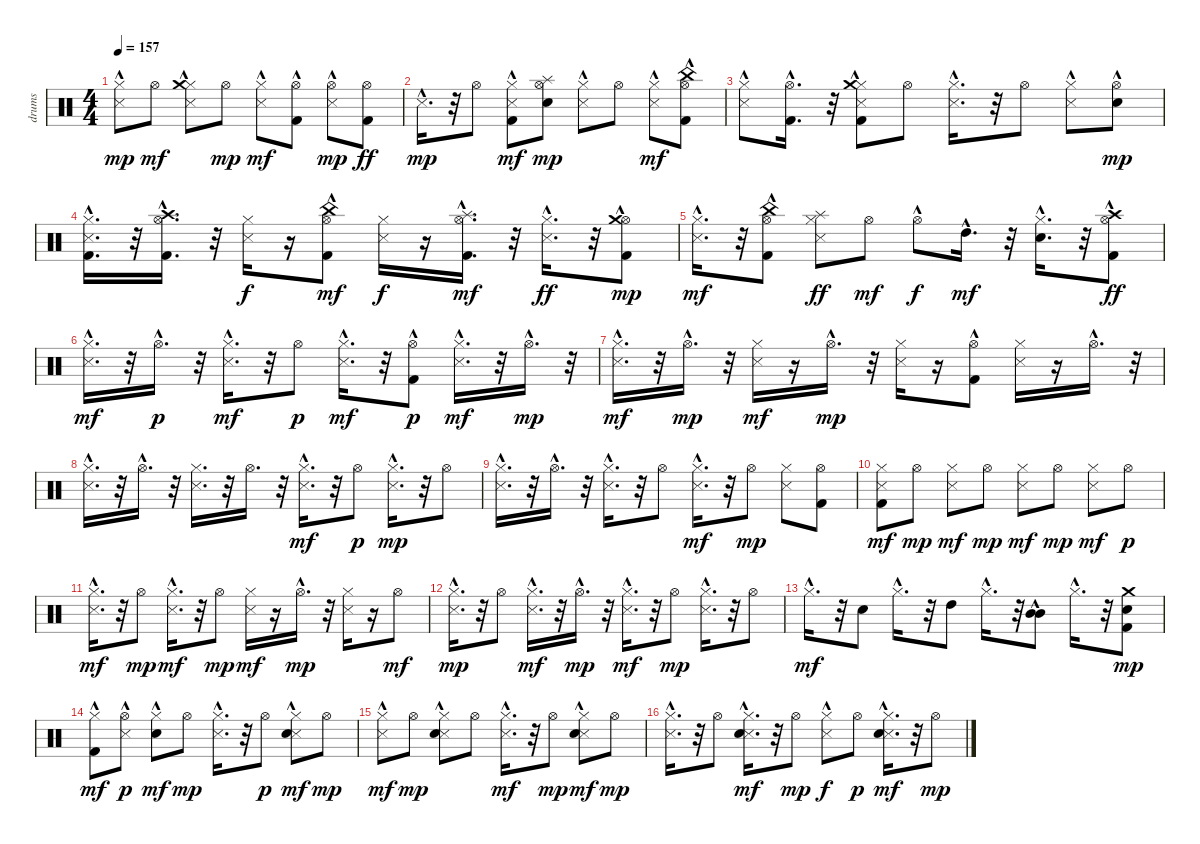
\track ("drums   " "drums   ") {instrument percussion}
\staff {score}
\articulation defaults
\ts (4 4)
\tempo 157
\clef neutral
\ks c
("Snare (side stick) 3"{hac} "Hi-Hat (closed)").8{dy mp} "Hi-Hat (open)".8{dy mf} ("Snare (side stick) 3"{hac} "Hi-Hat (closed)" "Crash medium (hit)").8 "Hi-Hat (open)".8{dy mp} ("Snare (side stick) 3"{hac} "Hi-Hat (closed)").8{dy mf} ("Kick (hit) 2"{hac} "Hi-Hat (open)").8 ("Snare (side stick) 3"{hac} "Hi-Hat (open)").8{dy mp} ("Kick (hit) 2" "Hi-Hat (open)").8{dy ff} |
"Snare (side stick) 3"{hac}.16{d dy mp} r.32 "Hi-Hat (open)".8 ("Kick (hit) 2" "Snare (side stick) 3"{hac} "Hi-Hat (closed)").8{dy mf} ("Electric Snare (hit)" "Hi-Hat (open)" "Splash (hit)").8{dy mp} ("Snare (side stick) 3"{hac} "Hi-Hat (closed)").8 "Hi-Hat (open)".8 ("Snare (side stick) 3"{hac} "Hi-Hat (closed)").8{dy mf} ("Kick (hit) 2" "Hi-Hat (open)" "China (hit)"{hac}).8 |
("Snare (side stick) 3"{hac} "Hi-Hat (closed)").8 ("Kick (hit) 2"{hac} "Hi-Hat (open)"{hac}).16{d} r.32 ("Kick (hit) 2"{hac} "Snare (side stick) 3"{hac} "Hi-Hat (closed)" "Crash medium (hit)").8 "Hi-Hat (open)".8 ("Snare (side stick) 3"{hac} "Hi-Hat (closed)"{hac}).16{d} r.32 "Hi-Hat (open)".8 ("Snare (side stick) 3"{hac} "Hi-Hat (closed)").8 ("Electric Snare (hit)"{hac} "Hi-Hat (open)").8{dy mp} |
("Kick (hit) 2"{hac} "Snare (side stick) 3"{hac} "Hi-Hat (closed)"{hac}).16{d} r.32 ("Kick (hit) 2"{hac} "Hi-Hat (open)"{hac} "Crash high (hit)"{hac}).16{d} r.32 ("Snare (side stick) 3" "Hi-Hat (closed)").16{dy f} r.16 ("Kick (hit) 2" "Hi-Hat (open)"{hac} "China (hit)"{hac}).8{dy mf} ("Snare (side stick) 3" "Hi-Hat (closed)").16{dy f} r.16 ("Kick (hit) 2"{hac} "Hi-Hat (open)"{hac} "Splash (hit)"{hac}).16{d dy mf} r.32 ("Snare (side stick) 3" "Hi-Hat (closed)"{hac}).16{d dy ff} r.32 ("Kick (hit) 2"{hac} "Hi-Hat (open)" "Crash medium (hit)"{hac}).8{dy mp} |
("Snare (side stick) 3"{hac} "Hi-Hat (closed)"{hac}).16{d dy mf} r.32 ("Kick (hit) 2"{hac} "Hi-Hat (open)" "China (hit)").8 ("Snare (side stick) 3" "Hi-Hat (closed)" "Splash (hit)").8{dy ff} "Hi-Hat (open)".8{dy mf} "Hi-Hat (open)"{hac}.8{dy f} "High Tom (hit)"{hac}.16{d dy mf} r.32 ("Snare (hit) 2"{hac} "Hi-Hat (closed)"{hac}).16{d} r.32 ("Kick (hit) 2" "Hi-Hat (open)"{hac} "Crash high (hit)").8{dy ff} |
("Snare (side stick) 3"{hac} "Hi-Hat (closed)"{hac}).16{d dy mf} r.32 "Hi-Hat (open)"{hac}.16{d dy p} r.32 ("Snare (side stick) 3"{hac} "Hi-Hat (closed)"{hac}).16{d dy mf} r.32 "Hi-Hat (open)".8{dy p} ("Snare (side stick) 3"{hac} "Hi-Hat (closed)"{hac}).16{d dy mf} r.32 ("Kick (hit) 2"{hac} "Hi-Hat (open)").8{dy p} ("Snare (side stick) 3"{hac} "Hi-Hat (closed)"{hac}).16{d dy mf} r.32 "Hi-Hat (open)"{hac}.16{d dy mp} r.32 |
("Snare (side stick) 3"{hac} "Hi-Hat (closed)"{hac}).16{d dy mf} r.32 "Hi-Hat (open)"{hac}.16{d dy mp} r.32 ("Snare (side stick) 3" "Hi-Hat (closed)").16{dy mf} r.16 "Hi-Hat (open)"{hac}.16{d dy mp} r.32 ("Snare (side stick) 3" "Hi-Hat (closed)").16 r.16 ("Kick (hit) 2" "Hi-Hat (open)"{hac}).8 ("Snare (side stick) 3" "Hi-Hat (closed)").16 r.16 "Hi-Hat (open)"{hac}.16{d} r.32 |
("Snare (side stick) 3"{hac} "Hi-Hat (closed)"{hac}).16{d} r.32 "Hi-Hat (open)"{hac}.16{d} r.32 ("Snare (side stick) 3" "Hi-Hat (closed)").16{d} r.32 "Hi-Hat (open)".16{d} r.32 ("Snare (side stick) 3"{hac} "Hi-Hat (closed)"{hac}).16{d dy mf} r.32 "Hi-Hat (open)".8{dy p} ("Snare (side stick) 3"{hac} "Hi-Hat (closed)"{hac}).16{d dy mp} r.32 "Hi-Hat (open)".8 |
("Snare (side stick) 3"{hac} "Hi-Hat (closed)"{hac}).16{d} r.32 "Hi-Hat (open)"{hac}.16{d} r.32 ("Snare (side stick) 3"{hac} "Hi-Hat (closed)"{hac}).16{d} r.32 "Hi-Hat (open)".8 ("Snare (side stick) 3"{hac} "Hi-Hat (closed)"{hac}).16{d dy mf} r.32 "Hi-Hat (open)".8{dy mp} ("Snare (side stick) 3" "Hi-Hat (closed)").8 ("Kick (hit) 2" "Hi-Hat (open)").8 |
("Kick (hit) 2" "Snare (side stick) 3" "Hi-Hat (closed)").8{dy mf} "Hi-Hat (open)".8{dy mp} ("Snare (side stick) 3" "Hi-Hat (closed)").8{dy mf} "Hi-Hat (open)".8{dy mp} ("Snare (side stick) 3" "Hi-Hat (closed)").8{dy mf} "Hi-Hat (open)".8{dy mp} ("Snare (side stick) 3" "Hi-Hat (closed)").8{dy mf} "Hi-Hat (open)".8{dy p} |
("Snare (side stick) 3"{hac} "Hi-Hat (closed)"{hac}).16{d dy mf} r.32 "Hi-Hat (open)".8{dy mp} ("Snare (side stick) 3"{hac} "Hi-Hat (closed)"{hac}).16{d dy mf} r.32 "Hi-Hat (open)".8{dy mp} ("Snare (side stick) 3" "Hi-Hat (closed)").16{dy mf} r.16 "Hi-Hat (open)"{hac}.16{d dy mp} r.32 ("Snare (side stick) 3" "Hi-Hat (closed)").16 r.16 "Hi-Hat (open)".8{dy mf} |
("Snare (side stick) 3"{hac} "Hi-Hat (closed)"{hac}).16{d dy mp} r.32 "Hi-Hat (open)".8 ("Snare (side stick) 3"{hac} "Hi-Hat (closed)"{hac}).16{d dy mf} r.32 "Hi-Hat (open)"{hac}.16{d dy mp} r.32 ("Snare (side stick) 3"{hac} "Hi-Hat (closed)"{hac}).16{d dy mf} r.32 "Hi-Hat (open)".8{dy mp} ("Snare (side stick) 3"{hac} "Hi-Hat (closed)"{hac}).16{d} r.32 "Hi-Hat (open)".8 |
"Hi-Hat (closed)"{hac}.16{d dy mf} r.32 "Snare (hit) 2".8 "Hi-Hat (closed)"{hac}.16{d} r.32 "High Tom (hit)".8 "Hi-Hat (closed)"{hac}.16{d} r.32 ("Mid Tom (hit)" "Mid Tom (hit)"{hac}).8 "Hi-Hat (closed)"{hac}.16{d} r.32 ("Kick (hit) 2" "Electric Snare (hit)" "Crash medium (hit)").8{dy mp} |
("Kick (hit) 2" "Hi-Hat (closed)"{hac}).8{dy mf} ("Snare (side stick) 3"{hac} "Hi-Hat (open)").8{dy p} ("Hand Clap (hit)"{hac} "Hi-Hat (closed)").8{dy mf} "Hi-Hat (open)".8{dy mp} ("Snare (side stick) 3" "Hi-Hat (closed)"{hac}).16{d} r.32 "Hi-Hat (open)".8{dy p} ("Snare (side stick) 3"{hac} "Hand Clap (hit)"{hac} "Hi-Hat (closed)").8{dy mf} "Hi-Hat (open)".8{dy mp} |
("Snare (side stick) 3"{hac} "Hi-Hat (closed)").8{dy mf} "Hi-Hat (open)".8{dy mp} ("Snare (side stick) 3" "Hand Clap (hit)" "Hi-Hat (closed)"{hac}).8 "Hi-Hat (open)".8 ("Snare (side stick) 3" "Hi-Hat (closed)"{hac}).16{d dy mf} r.32 "Hi-Hat (open)".8{dy mp} ("Snare (side stick) 3" "Hand Clap (hit)"{hac} "Hi-Hat (closed)").8{dy mf} "Hi-Hat (open)".8{dy mp} |
("Snare (side stick) 3" "Hi-Hat (closed)"{hac}).16{d} r.32 "Hi-Hat (open)".8 ("Snare (side stick) 3" "Hand Clap (hit)"{hac} "Hi-Hat (closed)"{hac}).16{d dy mf} r.32 "Hi-Hat (open)".8{dy mp} ("Snare (side stick) 3" "Hi-Hat (closed)"{hac}).8{dy f} "Hi-Hat (open)".8{dy p} ("Snare (side stick) 3"{hac} "Hand Clap (hit)"{hac} "Hi-Hat (closed)"{hac}).16{d dy mf} r.32 "Hi-Hat (open)".8{dy mp}
